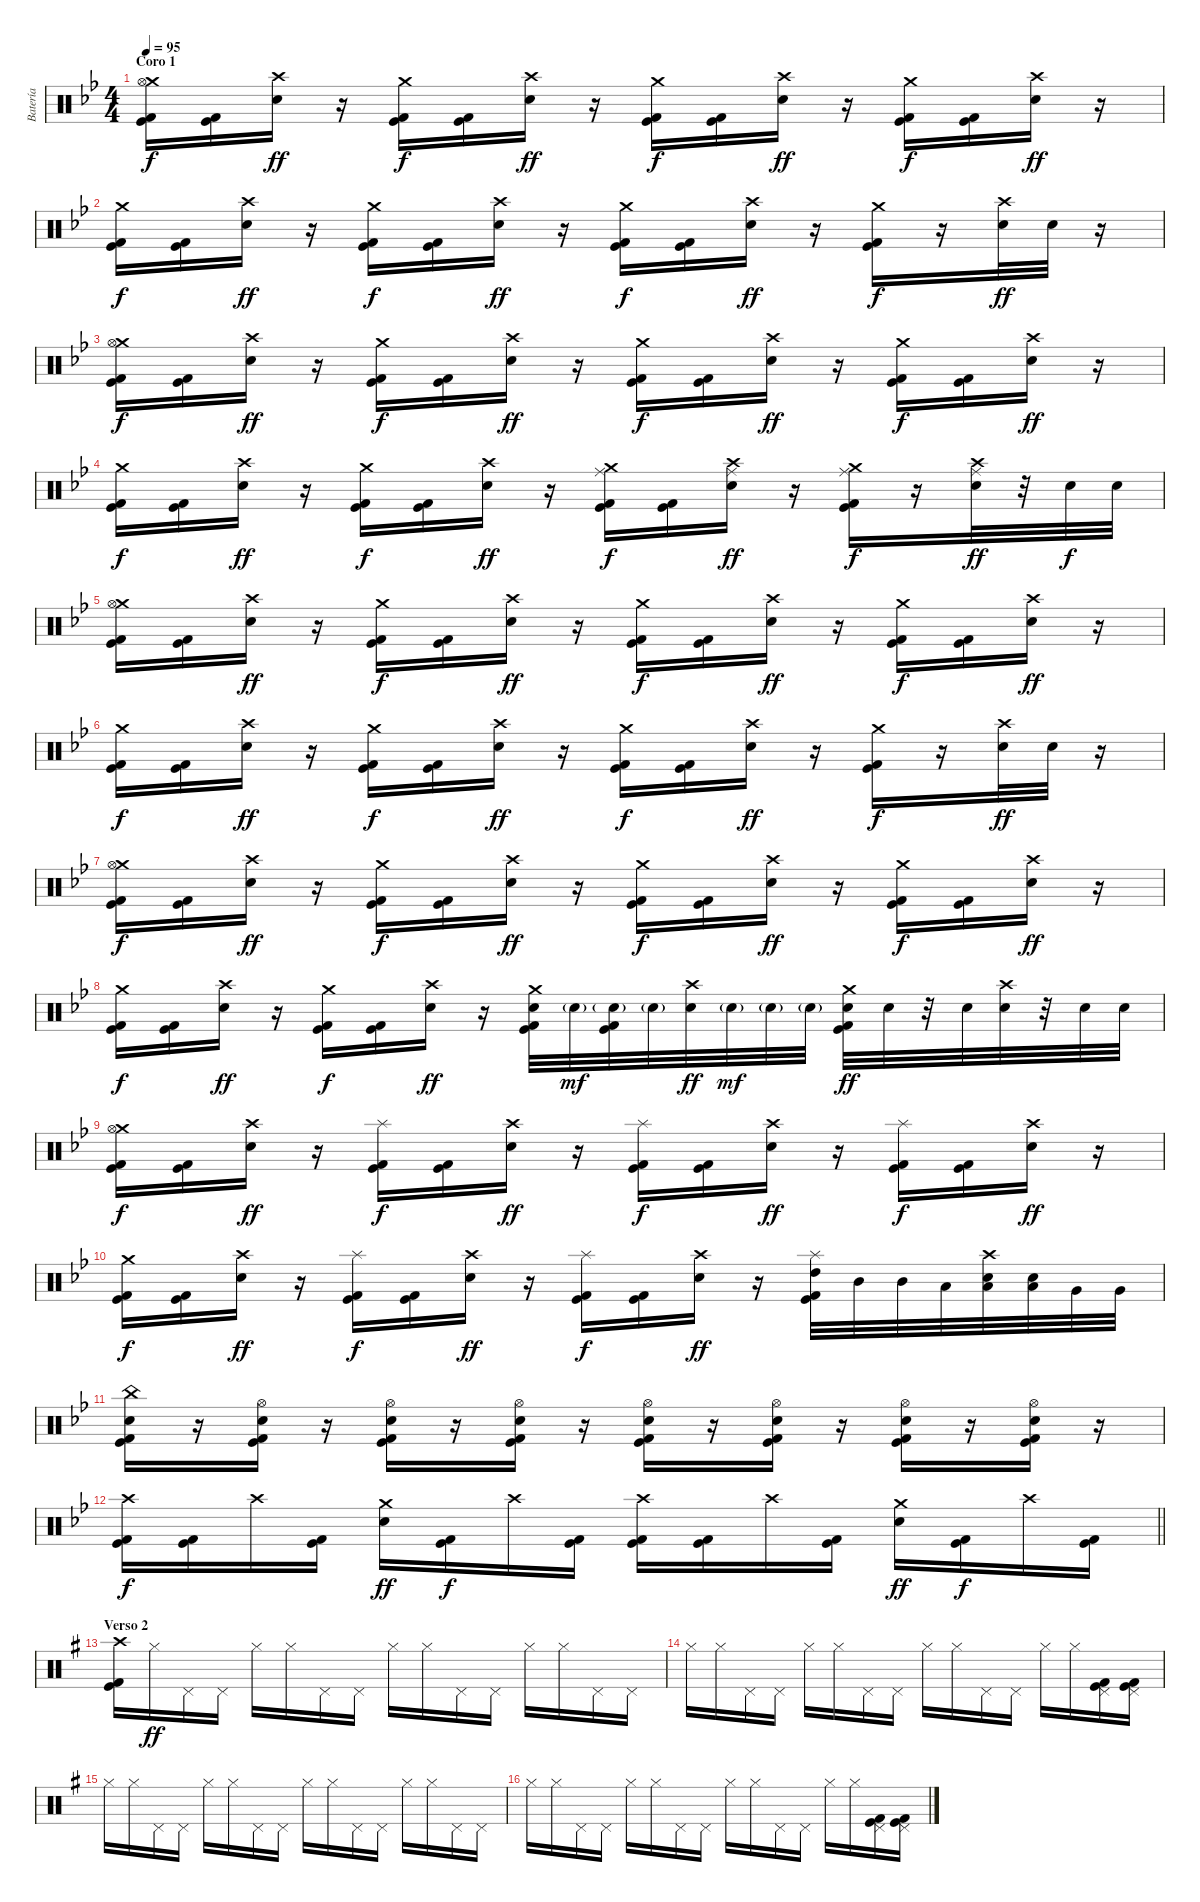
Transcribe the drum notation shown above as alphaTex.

\track ("Batería" "Batería") {instrument percussion}
\staff {score}
\articulation defaults
\ts (4 4)
\section ("" "Coro 1")
\tempo 95
\clef neutral
\ks bb
("Crash medium (hit)" "Hi-Hat (open)" "Kick (hit) 2" "Kick (hit)").16{dy f} ("Kick (hit) 2" "Kick (hit)").16 ("Crash high (hit)" "Electric Snare (hit)").16{dy ff} r.16 ("Crash medium (hit)" "Kick (hit) 2" "Kick (hit)").16{dy f} ("Kick (hit) 2" "Kick (hit)").16 ("Crash high (hit)" "Electric Snare (hit)").16{dy ff} r.16 ("Crash medium (hit)" "Kick (hit) 2" "Kick (hit)").16{dy f} ("Kick (hit) 2" "Kick (hit)").16 ("Crash high (hit)" "Electric Snare (hit)").16{dy ff} r.16 ("Crash medium (hit)" "Kick (hit) 2" "Kick (hit)").16{dy f} ("Kick (hit) 2" "Kick (hit)").16 ("Crash high (hit)" "Electric Snare (hit)").16{dy ff} r.16 |
("Crash medium (hit)" "Kick (hit) 2" "Kick (hit)").16{dy f} ("Kick (hit) 2" "Kick (hit)").16 ("Crash high (hit)" "Electric Snare (hit)").16{dy ff} r.16 ("Crash medium (hit)" "Kick (hit) 2" "Kick (hit)").16{dy f} ("Kick (hit) 2" "Kick (hit)").16 ("Crash high (hit)" "Electric Snare (hit)").16{dy ff} r.16 ("Crash medium (hit)" "Kick (hit) 2" "Kick (hit)").16{dy f} ("Kick (hit) 2" "Kick (hit)").16 ("Crash high (hit)" "Electric Snare (hit)").16{dy ff} r.16 ("Crash medium (hit)" "Kick (hit) 2" "Kick (hit)").16{dy f} r.16 ("Crash high (hit)" "Electric Snare (hit)").32{dy ff} "Electric Snare (hit)".32 r.16 |
("Crash medium (hit)" "Hi-Hat (open)" "Kick (hit) 2" "Kick (hit)").16{dy f} ("Kick (hit) 2" "Kick (hit)").16 ("Crash high (hit)" "Electric Snare (hit)").16{dy ff} r.16 ("Crash medium (hit)" "Kick (hit) 2" "Kick (hit)").16{dy f} ("Kick (hit) 2" "Kick (hit)").16 ("Crash high (hit)" "Electric Snare (hit)").16{dy ff} r.16 ("Crash medium (hit)" "Kick (hit) 2" "Kick (hit)").16{dy f} ("Kick (hit) 2" "Kick (hit)").16 ("Crash high (hit)" "Electric Snare (hit)").16{dy ff} r.16 ("Crash medium (hit)" "Kick (hit) 2" "Kick (hit)").16{dy f} ("Kick (hit) 2" "Kick (hit)").16 ("Crash high (hit)" "Electric Snare (hit)").16{dy ff} r.16 |
("Crash medium (hit)" "Kick (hit) 2" "Kick (hit)").16{dy f} ("Kick (hit) 2" "Kick (hit)").16 ("Crash high (hit)" "Electric Snare (hit)").16{dy ff} r.16 ("Crash medium (hit)" "Kick (hit) 2" "Kick (hit)").16{dy f} ("Kick (hit) 2" "Kick (hit)").16 ("Crash high (hit)" "Electric Snare (hit)").16{dy ff} r.16 ("Crash medium (hit)" "Ride (middle)" "Kick (hit) 2" "Kick (hit)").16{dy f} ("Kick (hit) 2" "Kick (hit)").16 ("Crash high (hit)" "Ride (middle)" "Electric Snare (hit)").16{dy ff} r.16 ("Crash medium (hit)" "Ride (middle)" "Kick (hit) 2" "Kick (hit)").16{dy f} r.16 ("Crash high (hit)" "Ride (middle)" "Electric Snare (hit)").32{dy ff} r.32 "Electric Snare (hit)".32{dy f} "Electric Snare (hit)".32 |
("Crash medium (hit)" "Hi-Hat (open)" "Kick (hit) 2" "Kick (hit)").16 ("Kick (hit) 2" "Kick (hit)").16 ("Crash high (hit)" "Electric Snare (hit)").16{dy ff} r.16 ("Crash medium (hit)" "Kick (hit) 2" "Kick (hit)").16{dy f} ("Kick (hit) 2" "Kick (hit)").16 ("Crash high (hit)" "Electric Snare (hit)").16{dy ff} r.16 ("Crash medium (hit)" "Kick (hit) 2" "Kick (hit)").16{dy f} ("Kick (hit) 2" "Kick (hit)").16 ("Crash high (hit)" "Electric Snare (hit)").16{dy ff} r.16 ("Crash medium (hit)" "Kick (hit) 2" "Kick (hit)").16{dy f} ("Kick (hit) 2" "Kick (hit)").16 ("Crash high (hit)" "Electric Snare (hit)").16{dy ff} r.16 |
("Crash medium (hit)" "Kick (hit) 2" "Kick (hit)").16{dy f} ("Kick (hit) 2" "Kick (hit)").16 ("Crash high (hit)" "Electric Snare (hit)").16{dy ff} r.16 ("Crash medium (hit)" "Kick (hit) 2" "Kick (hit)").16{dy f} ("Kick (hit) 2" "Kick (hit)").16 ("Crash high (hit)" "Electric Snare (hit)").16{dy ff} r.16 ("Crash medium (hit)" "Kick (hit) 2" "Kick (hit)").16{dy f} ("Kick (hit) 2" "Kick (hit)").16 ("Crash high (hit)" "Electric Snare (hit)").16{dy ff} r.16 ("Crash medium (hit)" "Kick (hit) 2" "Kick (hit)").16{dy f} r.16 ("Crash high (hit)" "Electric Snare (hit)").32{dy ff} "Electric Snare (hit)".32 r.16 |
("Crash medium (hit)" "Hi-Hat (open)" "Kick (hit) 2" "Kick (hit)").16{dy f} ("Kick (hit) 2" "Kick (hit)").16 ("Crash high (hit)" "Electric Snare (hit)").16{dy ff} r.16 ("Crash medium (hit)" "Kick (hit) 2" "Kick (hit)").16{dy f} ("Kick (hit) 2" "Kick (hit)").16 ("Crash high (hit)" "Electric Snare (hit)").16{dy ff} r.16 ("Crash medium (hit)" "Kick (hit) 2" "Kick (hit)").16{dy f} ("Kick (hit) 2" "Kick (hit)").16 ("Crash high (hit)" "Electric Snare (hit)").16{dy ff} r.16 ("Crash medium (hit)" "Kick (hit) 2" "Kick (hit)").16{dy f} ("Kick (hit) 2" "Kick (hit)").16 ("Crash high (hit)" "Electric Snare (hit)").16{dy ff} r.16 |
("Crash medium (hit)" "Kick (hit) 2" "Kick (hit)").16{dy f} ("Kick (hit) 2" "Kick (hit)").16 ("Crash high (hit)" "Electric Snare (hit)").16{dy ff} r.16 ("Crash medium (hit)" "Kick (hit) 2" "Kick (hit)").16{dy f} ("Kick (hit) 2" "Kick (hit)").16 ("Crash high (hit)" "Electric Snare (hit)").16{dy ff} r.16 ("Crash medium (hit)" "Electric Snare (hit)" "Kick (hit) 2" "Kick (hit)").32 "Electric Snare (hit)"{g}.32{dy mf} ("Electric Snare (hit)"{g} "Kick (hit) 2" "Kick (hit)").32 "Electric Snare (hit)"{g}.32 ("Crash high (hit)" "Electric Snare (hit)").32{dy ff} "Electric Snare (hit)"{g}.32{dy mf} "Electric Snare (hit)"{g}.32 "Electric Snare (hit)"{g}.32 ("Crash medium (hit)" "Electric Snare (hit)" "Kick (hit) 2" "Kick (hit)").32{dy ff} "Electric Snare (hit)".32 r.32 "Electric Snare (hit)".32 ("Crash high (hit)" "Electric Snare (hit)").32 r.32 "Electric Snare (hit)".32 "Electric Snare (hit)".32 |
("Crash medium (hit)" "Hi-Hat (open)" "Kick (hit) 2" "Kick (hit)").16{dy f} ("Kick (hit) 2" "Kick (hit)").16 ("Crash high (hit)" "Electric Snare (hit)").16{dy ff} r.16 ("Splash (hit)" "Kick (hit) 2" "Kick (hit)").16{dy f} ("Kick (hit) 2" "Kick (hit)").16 ("Crash high (hit)" "Electric Snare (hit)").16{dy ff} r.16 ("Splash (hit)" "Kick (hit) 2" "Kick (hit)").16{dy f} ("Kick (hit) 2" "Kick (hit)").16 ("Crash high (hit)" "Electric Snare (hit)").16{dy ff} r.16 ("Splash (hit)" "Kick (hit) 2" "Kick (hit)").16{dy f} ("Kick (hit) 2" "Kick (hit)").16 ("Crash high (hit)" "Electric Snare (hit)").16{dy ff} r.16 |
("Crash medium (hit)" "Kick (hit) 2" "Kick (hit)").16{dy f} ("Kick (hit) 2" "Kick (hit)").16 ("Crash high (hit)" "Electric Snare (hit)").16{dy ff} r.16 ("Splash (hit)" "Kick (hit) 2" "Kick (hit)").16{dy f} ("Kick (hit) 2" "Kick (hit)").16 ("Crash high (hit)" "Electric Snare (hit)").16{dy ff} r.16 ("Splash (hit)" "Kick (hit) 2" "Kick (hit)").16{dy f} ("Kick (hit) 2" "Kick (hit)").16 ("Crash high (hit)" "Electric Snare (hit)").16{dy ff} r.16 ("Splash (hit)" "High Tom (hit)" "Kick (hit) 2" "Kick (hit)").32 "Mid Tom (hit)".32 "Mid Tom (hit)".32 "Low Tom (hit)".32 ("Crash high (hit)" "Low Tom (hit)" "Electric Snare (hit)").32 ("Low Tom (hit)" "Electric Snare (hit)").32 "Very Low Tom (hit)".32 "Very Low Tom (hit)".32 |
("China (hit)" "Electric Snare (hit)" "Kick (hit) 2" "Kick (hit)").16{bd 60} r.16 ("Hi-Hat (open)" "Electric Snare (hit)" "Kick (hit) 2" "Kick (hit)").16{bd 60} r.16 ("Hi-Hat (open)" "Electric Snare (hit)" "Kick (hit) 2" "Kick (hit)").16{bd 60} r.16 ("Hi-Hat (open)" "Electric Snare (hit)" "Kick (hit) 2" "Kick (hit)").16{bd 60} r.16 ("Hi-Hat (open)" "Electric Snare (hit)" "Kick (hit) 2" "Kick (hit)").16{bd 60} r.16 ("Hi-Hat (open)" "Electric Snare (hit)" "Kick (hit) 2" "Kick (hit)").16{bd 60} r.16 ("Hi-Hat (open)" "Electric Snare (hit)" "Kick (hit) 2" "Kick (hit)").16{bd 60} r.16 ("Hi-Hat (open)" "Electric Snare (hit)" "Kick (hit) 2" "Kick (hit)").16{bd 60} r.16 |
\barLineRight lightlight
("Crash high (hit)" "Kick (hit) 2" "Kick (hit)").16{dy f} ("Kick (hit) 2" "Kick (hit)").16 "Crash high (hit)".16 ("Kick (hit) 2" "Kick (hit)").16 ("Crash medium (hit)" "Electric Snare (hit)").16{dy ff} ("Kick (hit) 2" "Kick (hit)").16{dy f} "Crash high (hit)".16 ("Kick (hit) 2" "Kick (hit)").16 ("Crash high (hit)" "Kick (hit) 2" "Kick (hit)").16 ("Kick (hit) 2" "Kick (hit)").16 "Crash high (hit)".16 ("Kick (hit) 2" "Kick (hit)").16 ("Crash medium (hit)" "Electric Snare (hit)").16{dy ff} ("Kick (hit) 2" "Kick (hit)").16{dy f} "Crash high (hit)".16 ("Kick (hit) 2" "Kick (hit)").16 |
\section ("" "Verso 2")
\ks g
("Crash high (hit)" "Kick (hit) 2" "Kick (hit)").16 "Hi-Hat (closed)".16{dy ff} "Pedal Hi-Hat (hit)".16 "Pedal Hi-Hat (hit)".16 "Hi-Hat (closed)".16 "Hi-Hat (closed)".16 "Pedal Hi-Hat (hit)".16 "Pedal Hi-Hat (hit)".16 "Hi-Hat (closed)".16 "Hi-Hat (closed)".16 "Pedal Hi-Hat (hit)".16 "Pedal Hi-Hat (hit)".16 "Hi-Hat (closed)".16 "Hi-Hat (closed)".16 "Pedal Hi-Hat (hit)".16 "Pedal Hi-Hat (hit)".16 |
"Hi-Hat (closed)".16 "Hi-Hat (closed)".16 "Pedal Hi-Hat (hit)".16 "Pedal Hi-Hat (hit)".16 "Hi-Hat (closed)".16 "Hi-Hat (closed)".16 "Pedal Hi-Hat (hit)".16 "Pedal Hi-Hat (hit)".16 "Hi-Hat (closed)".16 "Hi-Hat (closed)".16 "Pedal Hi-Hat (hit)".16 "Pedal Hi-Hat (hit)".16 "Hi-Hat (closed)".16 "Hi-Hat (closed)".16 ("Pedal Hi-Hat (hit)" "Kick (hit) 2" "Kick (hit)").16 ("Pedal Hi-Hat (hit)" "Kick (hit) 2" "Kick (hit)").16 |
"Hi-Hat (closed)".16 "Hi-Hat (closed)".16 "Pedal Hi-Hat (hit)".16 "Pedal Hi-Hat (hit)".16 "Hi-Hat (closed)".16 "Hi-Hat (closed)".16 "Pedal Hi-Hat (hit)".16 "Pedal Hi-Hat (hit)".16 "Hi-Hat (closed)".16 "Hi-Hat (closed)".16 "Pedal Hi-Hat (hit)".16 "Pedal Hi-Hat (hit)".16 "Hi-Hat (closed)".16 "Hi-Hat (closed)".16 "Pedal Hi-Hat (hit)".16 "Pedal Hi-Hat (hit)".16 |
"Hi-Hat (closed)".16 "Hi-Hat (closed)".16 "Pedal Hi-Hat (hit)".16 "Pedal Hi-Hat (hit)".16 "Hi-Hat (closed)".16 "Hi-Hat (closed)".16 "Pedal Hi-Hat (hit)".16 "Pedal Hi-Hat (hit)".16 "Hi-Hat (closed)".16 "Hi-Hat (closed)".16 "Pedal Hi-Hat (hit)".16 "Pedal Hi-Hat (hit)".16 "Hi-Hat (closed)".16 "Hi-Hat (closed)".16 ("Pedal Hi-Hat (hit)" "Kick (hit) 2" "Kick (hit)").16 ("Pedal Hi-Hat (hit)" "Kick (hit) 2" "Kick (hit)").16
